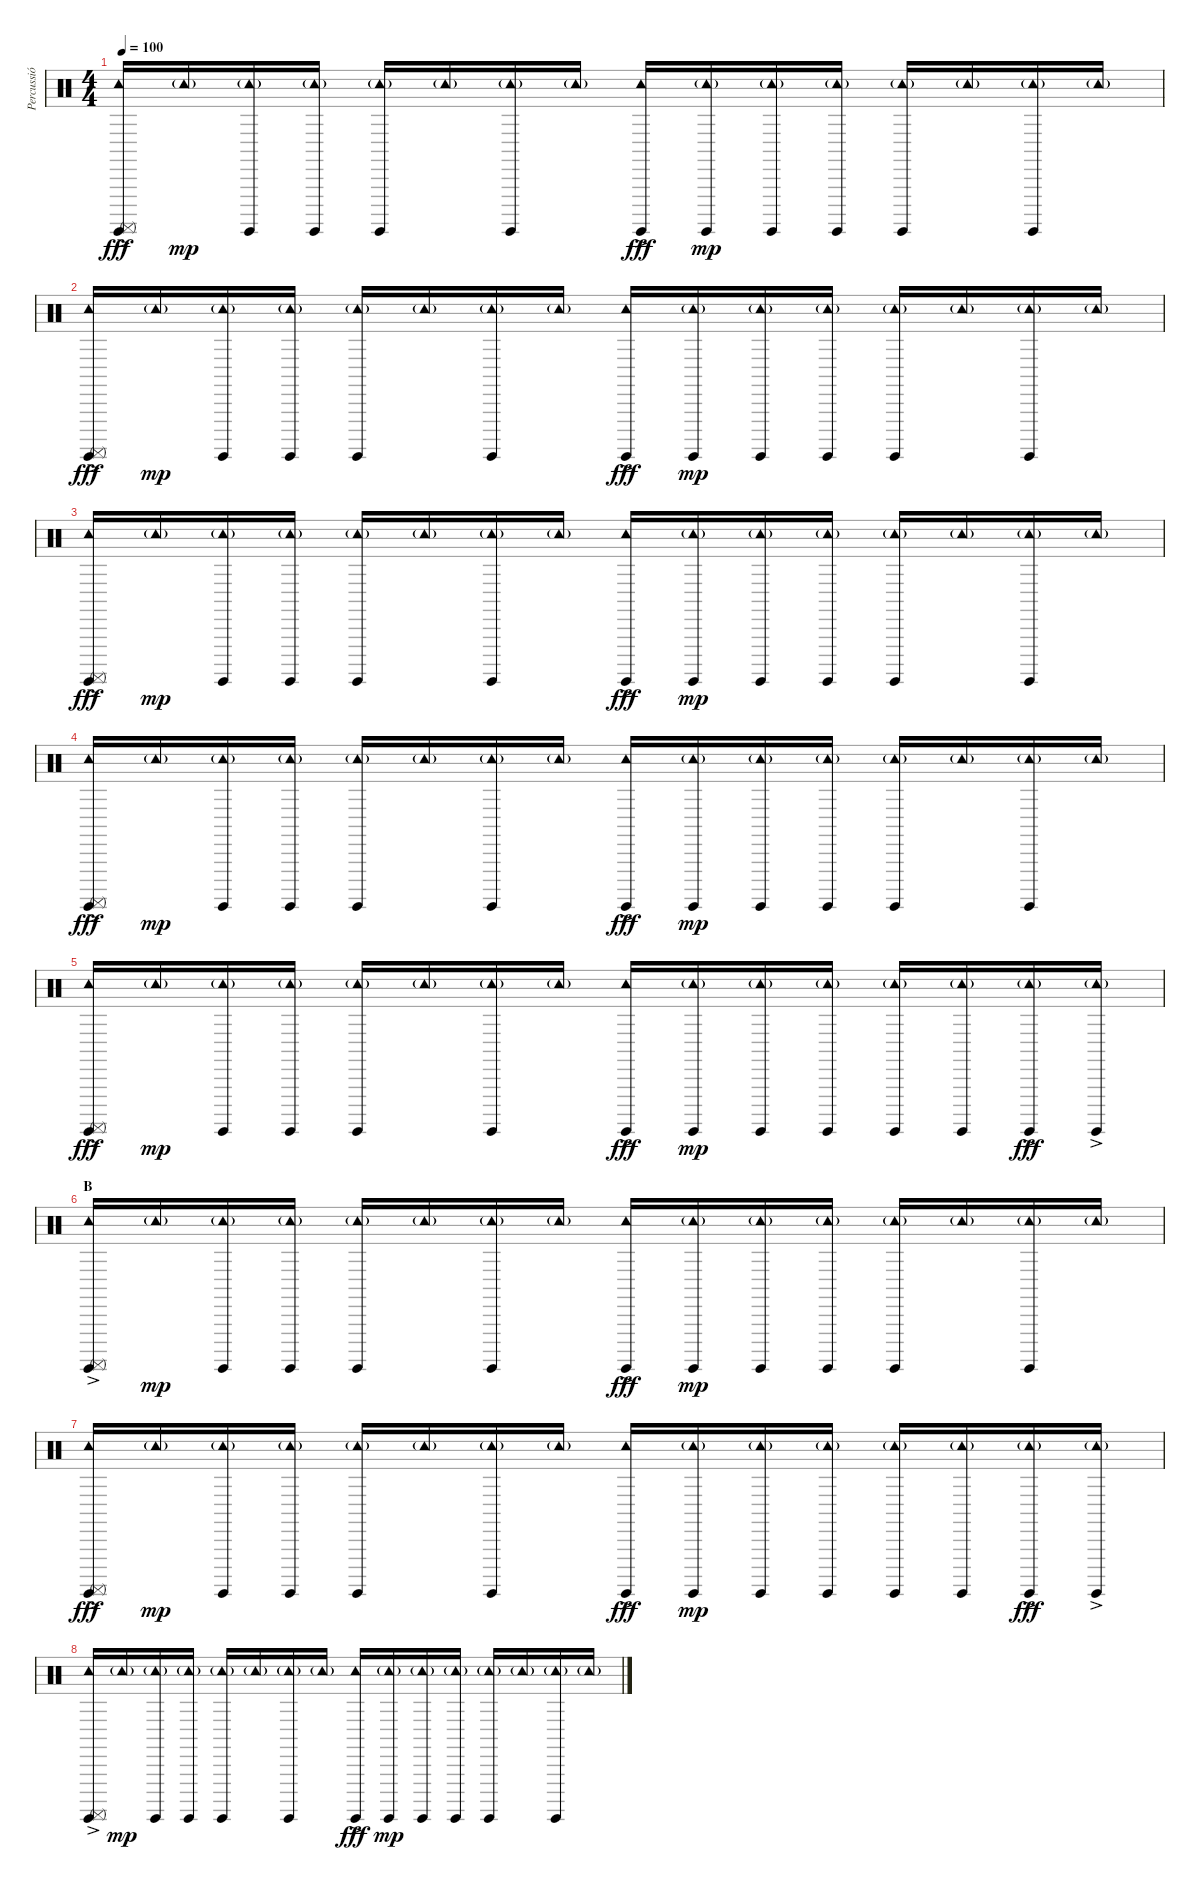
\track ("Percussió" "Percussió") {instrument percussion}
\staff {score}
\articulation defaults
\ts (4 4)
\tempo 100
\clef neutral
\ks c
("Tambourine (hit)"{ac} "Surdo (hit)" "Surdo (mute)"{ac}).16{dy fff} "Tambourine (hit)"{g}.16{dy mp} ("Tambourine (hit)"{g} "Surdo (hit)").16 ("Tambourine (hit)"{g} "Surdo (hit)").16 ("Tambourine (hit)"{g} "Surdo (hit)").16 "Tambourine (hit)"{g}.16 ("Tambourine (hit)"{g} "Surdo (hit)").16 "Tambourine (hit)"{g}.16 ("Tambourine (hit)"{ac} "Surdo (hit)"{ac}).16{dy fff} ("Tambourine (hit)"{g} "Surdo (hit)").16{dy mp} ("Tambourine (hit)"{g} "Surdo (hit)").16 ("Tambourine (hit)"{g} "Surdo (hit)").16 ("Tambourine (hit)"{g} "Surdo (hit)").16 "Tambourine (hit)"{g}.16 ("Tambourine (hit)"{g} "Surdo (hit)").16 "Tambourine (hit)"{g}.16 |
("Tambourine (hit)"{ac} "Surdo (hit)" "Surdo (mute)"{ac}).16{dy fff} "Tambourine (hit)"{g}.16{dy mp} ("Tambourine (hit)"{g} "Surdo (hit)").16 ("Tambourine (hit)"{g} "Surdo (hit)").16 ("Tambourine (hit)"{g} "Surdo (hit)").16 "Tambourine (hit)"{g}.16 ("Tambourine (hit)"{g} "Surdo (hit)").16 "Tambourine (hit)"{g}.16 ("Tambourine (hit)"{ac} "Surdo (hit)"{ac}).16{dy fff} ("Tambourine (hit)"{g} "Surdo (hit)").16{dy mp} ("Tambourine (hit)"{g} "Surdo (hit)").16 ("Tambourine (hit)"{g} "Surdo (hit)").16 ("Tambourine (hit)"{g} "Surdo (hit)").16 "Tambourine (hit)"{g}.16 ("Tambourine (hit)"{g} "Surdo (hit)").16 "Tambourine (hit)"{g}.16 |
("Tambourine (hit)"{ac} "Surdo (hit)" "Surdo (mute)"{ac}).16{dy fff} "Tambourine (hit)"{g}.16{dy mp} ("Tambourine (hit)"{g} "Surdo (hit)").16 ("Tambourine (hit)"{g} "Surdo (hit)").16 ("Tambourine (hit)"{g} "Surdo (hit)").16 "Tambourine (hit)"{g}.16 ("Tambourine (hit)"{g} "Surdo (hit)").16 "Tambourine (hit)"{g}.16 ("Tambourine (hit)"{ac} "Surdo (hit)"{ac}).16{dy fff} ("Tambourine (hit)"{g} "Surdo (hit)").16{dy mp} ("Tambourine (hit)"{g} "Surdo (hit)").16 ("Tambourine (hit)"{g} "Surdo (hit)").16 ("Tambourine (hit)"{g} "Surdo (hit)").16 "Tambourine (hit)"{g}.16 ("Tambourine (hit)"{g} "Surdo (hit)").16 "Tambourine (hit)"{g}.16 |
("Tambourine (hit)"{ac} "Surdo (hit)" "Surdo (mute)"{ac}).16{dy fff} "Tambourine (hit)"{g}.16{dy mp} ("Tambourine (hit)"{g} "Surdo (hit)").16 ("Tambourine (hit)"{g} "Surdo (hit)").16 ("Tambourine (hit)"{g} "Surdo (hit)").16 "Tambourine (hit)"{g}.16 ("Tambourine (hit)"{g} "Surdo (hit)").16 "Tambourine (hit)"{g}.16 ("Tambourine (hit)"{ac} "Surdo (hit)"{ac}).16{dy fff} ("Tambourine (hit)"{g} "Surdo (hit)").16{dy mp} ("Tambourine (hit)"{g} "Surdo (hit)").16 ("Tambourine (hit)"{g} "Surdo (hit)").16 ("Tambourine (hit)"{g} "Surdo (hit)").16 "Tambourine (hit)"{g}.16 ("Tambourine (hit)"{g} "Surdo (hit)").16 "Tambourine (hit)"{g}.16 |
("Tambourine (hit)"{ac} "Surdo (hit)" "Surdo (mute)"{ac}).16{dy fff} "Tambourine (hit)"{g}.16{dy mp} ("Tambourine (hit)"{g} "Surdo (hit)").16 ("Tambourine (hit)"{g} "Surdo (hit)").16 ("Tambourine (hit)"{g} "Surdo (hit)").16 "Tambourine (hit)"{g}.16 ("Tambourine (hit)"{g} "Surdo (hit)").16 "Tambourine (hit)"{g}.16 ("Tambourine (hit)"{ac} "Surdo (hit)"{ac}).16{dy fff} ("Tambourine (hit)"{g} "Surdo (hit)").16{dy mp} ("Tambourine (hit)"{g} "Surdo (hit)").16 ("Tambourine (hit)"{g} "Surdo (hit)").16 ("Tambourine (hit)"{g} "Surdo (hit)").16 ("Tambourine (hit)"{g} "Surdo (hit)").16 ("Tambourine (hit)"{g} "Surdo (hit)"{ac}).16{dy fff} ("Tambourine (hit)"{g} "Surdo (hit)"{ac}).16 |
\section ("" "B")
("Tambourine (hit)"{ac} "Surdo (hit)" "Surdo (mute)"{ac}).16 "Tambourine (hit)"{g}.16{dy mp} ("Tambourine (hit)"{g} "Surdo (hit)").16 ("Tambourine (hit)"{g} "Surdo (hit)").16 ("Tambourine (hit)"{g} "Surdo (hit)").16 "Tambourine (hit)"{g}.16 ("Tambourine (hit)"{g} "Surdo (hit)").16 "Tambourine (hit)"{g}.16 ("Tambourine (hit)"{ac} "Surdo (hit)"{ac}).16{dy fff} ("Tambourine (hit)"{g} "Surdo (hit)").16{dy mp} ("Tambourine (hit)"{g} "Surdo (hit)").16 ("Tambourine (hit)"{g} "Surdo (hit)").16 ("Tambourine (hit)"{g} "Surdo (hit)").16 "Tambourine (hit)"{g}.16 ("Tambourine (hit)"{g} "Surdo (hit)").16 "Tambourine (hit)"{g}.16 |
("Tambourine (hit)"{ac} "Surdo (hit)" "Surdo (mute)"{ac}).16{dy fff} "Tambourine (hit)"{g}.16{dy mp} ("Tambourine (hit)"{g} "Surdo (hit)").16 ("Tambourine (hit)"{g} "Surdo (hit)").16 ("Tambourine (hit)"{g} "Surdo (hit)").16 "Tambourine (hit)"{g}.16 ("Tambourine (hit)"{g} "Surdo (hit)").16 "Tambourine (hit)"{g}.16 ("Tambourine (hit)"{ac} "Surdo (hit)"{ac}).16{dy fff} ("Tambourine (hit)"{g} "Surdo (hit)").16{dy mp} ("Tambourine (hit)"{g} "Surdo (hit)").16 ("Tambourine (hit)"{g} "Surdo (hit)").16 ("Tambourine (hit)"{g} "Surdo (hit)").16 ("Tambourine (hit)"{g} "Surdo (hit)").16 ("Tambourine (hit)"{g} "Surdo (hit)"{ac}).16{dy fff} ("Tambourine (hit)"{g} "Surdo (hit)"{ac}).16 |
("Tambourine (hit)"{ac} "Surdo (hit)" "Surdo (mute)"{ac}).16 "Tambourine (hit)"{g}.16{dy mp} ("Tambourine (hit)"{g} "Surdo (hit)").16 ("Tambourine (hit)"{g} "Surdo (hit)").16 ("Tambourine (hit)"{g} "Surdo (hit)").16 "Tambourine (hit)"{g}.16 ("Tambourine (hit)"{g} "Surdo (hit)").16 "Tambourine (hit)"{g}.16 ("Tambourine (hit)"{ac} "Surdo (hit)"{ac}).16{dy fff} ("Tambourine (hit)"{g} "Surdo (hit)").16{dy mp} ("Tambourine (hit)"{g} "Surdo (hit)").16 ("Tambourine (hit)"{g} "Surdo (hit)").16 ("Tambourine (hit)"{g} "Surdo (hit)").16 "Tambourine (hit)"{g}.16 ("Tambourine (hit)"{g} "Surdo (hit)").16 "Tambourine (hit)"{g}.16
